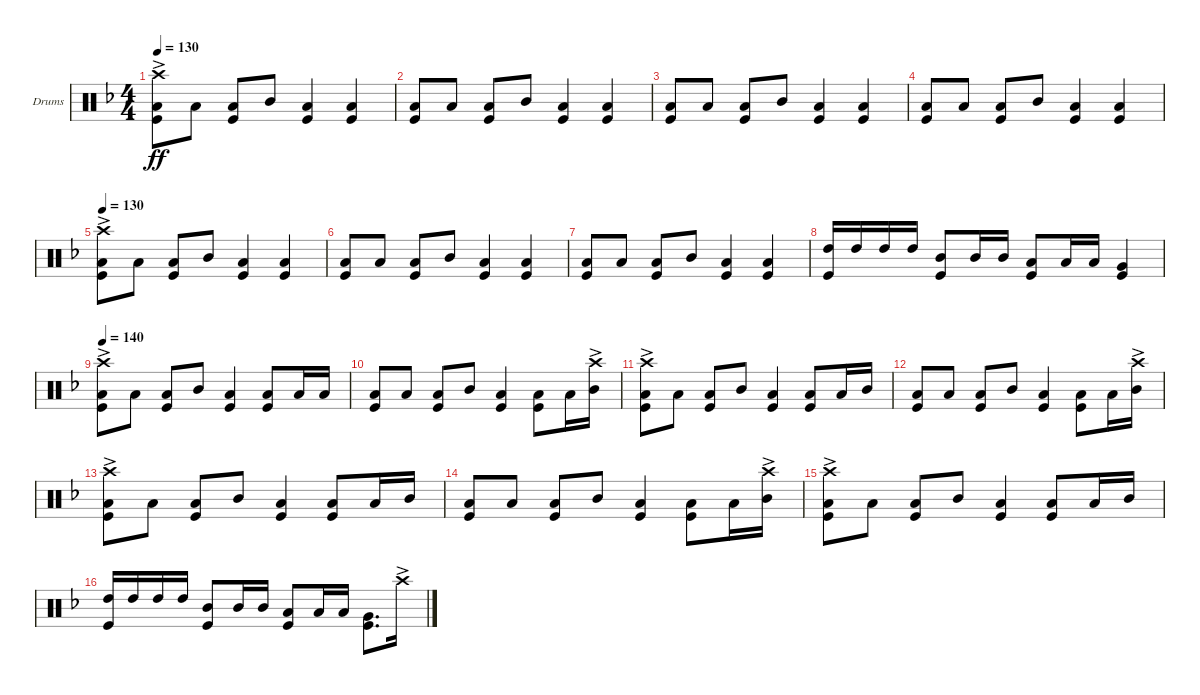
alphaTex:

\defaultSystemsLayout 4
\bracketExtendMode groupsimilarinstruments
\firstSystemTrackNameOrientation horizontal
\otherSystemsTrackNameOrientation horizontal
\track ("Drumkit" "Drums") {instrument percussion}
\staff {score}
\articulation defaults
\ts (4 4)
\section ("" "")
\tempo 130
\clef neutral
\ks f
("Kick (hit)" "Low Tom (hit)" "Crash high (hit)"{ac}).8{dy ff} "Low Tom (hit)".8 ("Kick (hit)" "Low Tom (hit)").8 "Mid Tom (hit)".8 ("Low Tom (hit)" "Kick (hit)").4 ("Low Tom (hit)" "Kick (hit)").4 |
("Kick (hit)" "Low Tom (hit)").8 "Low Tom (hit)".8 ("Kick (hit)" "Low Tom (hit)").8 "Mid Tom (hit)".8 ("Low Tom (hit)" "Kick (hit)").4 ("Low Tom (hit)" "Kick (hit)").4 |
("Kick (hit)" "Low Tom (hit)").8 "Low Tom (hit)".8 ("Kick (hit)" "Low Tom (hit)").8 "Mid Tom (hit)".8 ("Low Tom (hit)" "Kick (hit)").4 ("Low Tom (hit)" "Kick (hit)").4 |
("Kick (hit)" "Low Tom (hit)").8 "Low Tom (hit)".8 ("Kick (hit)" "Low Tom (hit)").8 "Mid Tom (hit)".8 ("Low Tom (hit)" "Kick (hit)").4 ("Low Tom (hit)" "Kick (hit)").4 |
\tempo 130
("Kick (hit)" "Low Tom (hit)" "Crash high (hit)"{ac}).8 "Low Tom (hit)".8 ("Kick (hit)" "Low Tom (hit)").8 "Mid Tom (hit)".8 ("Low Tom (hit)" "Kick (hit)").4 ("Low Tom (hit)" "Kick (hit)").4 |
("Kick (hit)" "Low Tom (hit)").8 "Low Tom (hit)".8 ("Kick (hit)" "Low Tom (hit)").8 "Mid Tom (hit)".8 ("Low Tom (hit)" "Kick (hit)").4 ("Low Tom (hit)" "Kick (hit)").4 |
("Kick (hit)" "Low Tom (hit)").8 "Low Tom (hit)".8 ("Kick (hit)" "Low Tom (hit)").8 "Mid Tom (hit)".8 ("Low Tom (hit)" "Kick (hit)").4 ("Low Tom (hit)" "Kick (hit)").4 |
("High Tom (hit)" "Kick (hit)").16 "High Tom (hit)".16 "High Tom (hit)".16 "High Tom (hit)".16 ("Mid Tom (hit)" "Kick (hit)").8 "Mid Tom (hit)".16 "Mid Tom (hit)".16 ("Low Tom (hit)" "Kick (hit)").8 "Low Tom (hit)".16 "Low Tom (hit)".16 ("Very Low Tom (hit)" "Kick (hit)").4 |
\tempo 140
("Kick (hit)" "Low Tom (hit)" "Crash high (hit)"{ac}).8 "Low Tom (hit)".8 ("Kick (hit)" "Low Tom (hit)").8 "Mid Tom (hit)".8 ("Low Tom (hit)" "Kick (hit)").4 ("Low Tom (hit)" "Kick (hit)").8 "Low Tom (hit)".16 "Low Tom (hit)".16 |
("Kick (hit)" "Low Tom (hit)").8 "Low Tom (hit)".8 ("Kick (hit)" "Low Tom (hit)").8 "Mid Tom (hit)".8 ("Low Tom (hit)" "Kick (hit)").4 ("Low Tom (hit)" "Kick (hit)").8 "Low Tom (hit)".16 ("Mid Tom (hit)" "Crash high (hit)"{ac}).16 |
("Kick (hit)" "Low Tom (hit)" "Crash high (hit)"{ac}).8 "Low Tom (hit)".8 ("Kick (hit)" "Low Tom (hit)").8 "Mid Tom (hit)".8 ("Low Tom (hit)" "Kick (hit)").4 ("Low Tom (hit)" "Kick (hit)").8 "Low Tom (hit)".16 "Mid Tom (hit)".16 |
("Kick (hit)" "Low Tom (hit)").8 "Low Tom (hit)".8 ("Kick (hit)" "Low Tom (hit)").8 "Mid Tom (hit)".8 ("Low Tom (hit)" "Kick (hit)").4 ("Low Tom (hit)" "Kick (hit)").8 "Low Tom (hit)".16 ("Mid Tom (hit)" "Crash high (hit)"{ac}).16 |
("Kick (hit)" "Low Tom (hit)" "Crash high (hit)"{ac}).8 "Low Tom (hit)".8 ("Kick (hit)" "Low Tom (hit)").8 "Mid Tom (hit)".8 ("Low Tom (hit)" "Kick (hit)").4 ("Low Tom (hit)" "Kick (hit)").8 "Low Tom (hit)".16 "Mid Tom (hit)".16 |
("Kick (hit)" "Low Tom (hit)").8 "Low Tom (hit)".8 ("Kick (hit)" "Low Tom (hit)").8 "Mid Tom (hit)".8 ("Low Tom (hit)" "Kick (hit)").4 ("Low Tom (hit)" "Kick (hit)").8 "Low Tom (hit)".16 ("Mid Tom (hit)" "Crash high (hit)"{ac}).16 |
("Kick (hit)" "Low Tom (hit)" "Crash high (hit)"{ac}).8 "Low Tom (hit)".8 ("Kick (hit)" "Low Tom (hit)").8 "Mid Tom (hit)".8 ("Low Tom (hit)" "Kick (hit)").4 ("Low Tom (hit)" "Kick (hit)").8 "Low Tom (hit)".16 "Mid Tom (hit)".16 |
("High Tom (hit)" "Kick (hit)").16 "High Tom (hit)".16 "High Tom (hit)".16 "High Tom (hit)".16 ("Mid Tom (hit)" "Kick (hit)").8 "Mid Tom (hit)".16 "Mid Tom (hit)".16 ("Low Tom (hit)" "Kick (hit)").8 "Low Tom (hit)".16 "Low Tom (hit)".16 ("Very Low Tom (hit)" "Kick (hit)").8{d} "Crash high (hit)"{ac}.16
